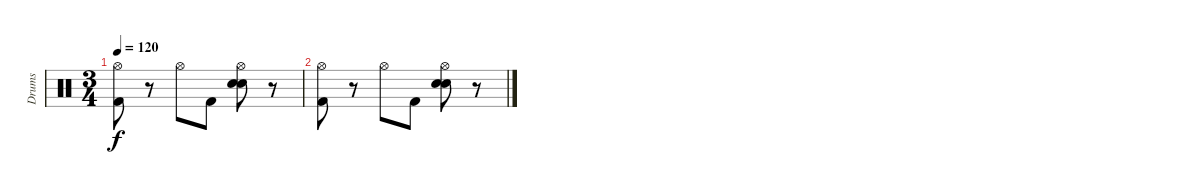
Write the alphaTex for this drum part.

\track ("Drums" "Drums") {instrument percussion}
\staff {score}
\articulation defaults
\ts (3 4)
\tempo 120
\clef neutral
\ks c
("Kick (hit) 2" "Hi-Hat (open)").8{dy f} r.8 "Hi-Hat (open)".8 "Kick (hit) 2".8 ("Electric Snare (hit)" "Electric Snare (hit)" "Hi-Hat (open)").8 r.8 |
("Kick (hit) 2" "Hi-Hat (open)").8 r.8 "Hi-Hat (open)".8 "Kick (hit) 2".8 ("Electric Snare (hit)" "Electric Snare (hit)" "Hi-Hat (open)").8 r.8
